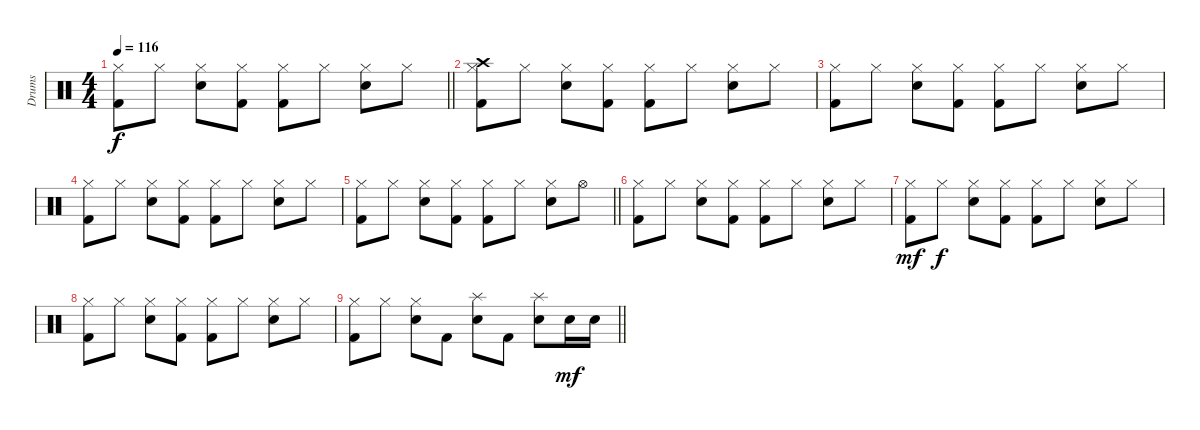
\track ("Drums" "Drums") {instrument percussion}
\staff {score}
\articulation defaults
\ts (4 4)
\tempo 116
\clef neutral
\barLineRight lightlight
\ks c
("Kick (hit) 2" "Hi-Hat (closed)").8{dy f} "Hi-Hat (closed)".8 ("Electric Snare (hit)" "Hi-Hat (closed)").8 ("Kick (hit) 2" "Hi-Hat (closed)").8 ("Kick (hit) 2" "Hi-Hat (closed)").8 "Hi-Hat (closed)".8 ("Electric Snare (hit)" "Hi-Hat (closed)").8 "Hi-Hat (closed)".8 |
("Crash high (hit)" "Kick (hit) 2" "Hi-Hat (closed)").8 "Hi-Hat (closed)".8 ("Electric Snare (hit)" "Hi-Hat (closed)").8 ("Kick (hit) 2" "Hi-Hat (closed)").8 ("Kick (hit) 2" "Hi-Hat (closed)").8 "Hi-Hat (closed)".8 ("Electric Snare (hit)" "Hi-Hat (closed)").8 "Hi-Hat (closed)".8 |
("Kick (hit) 2" "Hi-Hat (closed)").8 "Hi-Hat (closed)".8 ("Electric Snare (hit)" "Hi-Hat (closed)").8 ("Kick (hit) 2" "Hi-Hat (closed)").8 ("Kick (hit) 2" "Hi-Hat (closed)").8 "Hi-Hat (closed)".8 ("Electric Snare (hit)" "Hi-Hat (closed)").8 "Hi-Hat (closed)".8 |
("Kick (hit) 2" "Hi-Hat (closed)").8 "Hi-Hat (closed)".8 ("Electric Snare (hit)" "Hi-Hat (closed)").8 ("Kick (hit) 2" "Hi-Hat (closed)").8 ("Kick (hit) 2" "Hi-Hat (closed)").8 "Hi-Hat (closed)".8 ("Electric Snare (hit)" "Hi-Hat (closed)").8 "Hi-Hat (closed)".8 |
\barLineRight lightlight
("Kick (hit) 2" "Hi-Hat (closed)").8 "Hi-Hat (closed)".8 ("Electric Snare (hit)" "Hi-Hat (closed)").8 ("Kick (hit) 2" "Hi-Hat (closed)").8 ("Kick (hit) 2" "Hi-Hat (closed)").8 "Hi-Hat (closed)".8 ("Electric Snare (hit)" "Hi-Hat (closed)").8 "Hi-Hat (open)".8 |
("Kick (hit) 2" "Hi-Hat (closed)").8 "Hi-Hat (closed)".8 ("Electric Snare (hit)" "Hi-Hat (closed)").8 ("Kick (hit) 2" "Hi-Hat (closed)").8 ("Kick (hit) 2" "Hi-Hat (closed)").8 "Hi-Hat (closed)".8 ("Electric Snare (hit)" "Hi-Hat (closed)").8 "Hi-Hat (closed)".8 |
("Kick (hit) 2" "Hi-Hat (closed)").8{dy mf} "Hi-Hat (closed)".8{dy f} ("Electric Snare (hit)" "Hi-Hat (closed)").8 ("Kick (hit) 2" "Hi-Hat (closed)").8 ("Kick (hit) 2" "Hi-Hat (closed)").8 "Hi-Hat (closed)".8 ("Electric Snare (hit)" "Hi-Hat (closed)").8 "Hi-Hat (closed)".8 |
("Kick (hit) 2" "Hi-Hat (closed)").8 "Hi-Hat (closed)".8 ("Electric Snare (hit)" "Hi-Hat (closed)").8 ("Kick (hit) 2" "Hi-Hat (closed)").8 ("Kick (hit) 2" "Hi-Hat (closed)").8 "Hi-Hat (closed)".8 ("Electric Snare (hit)" "Hi-Hat (closed)").8 "Hi-Hat (closed)".8 |
\barLineRight lightlight
("Kick (hit) 2" "Hi-Hat (closed)").8 "Hi-Hat (closed)".8 ("Electric Snare (hit)" "Hi-Hat (closed)").8 "Kick (hit) 2".8 ("Electric Snare (hit)" "Splash (hit)").8 "Kick (hit) 2".8 ("Electric Snare (hit)" "Splash (hit)").8 "Electric Snare (hit)".16{dy mf} "Electric Snare (hit)".16
